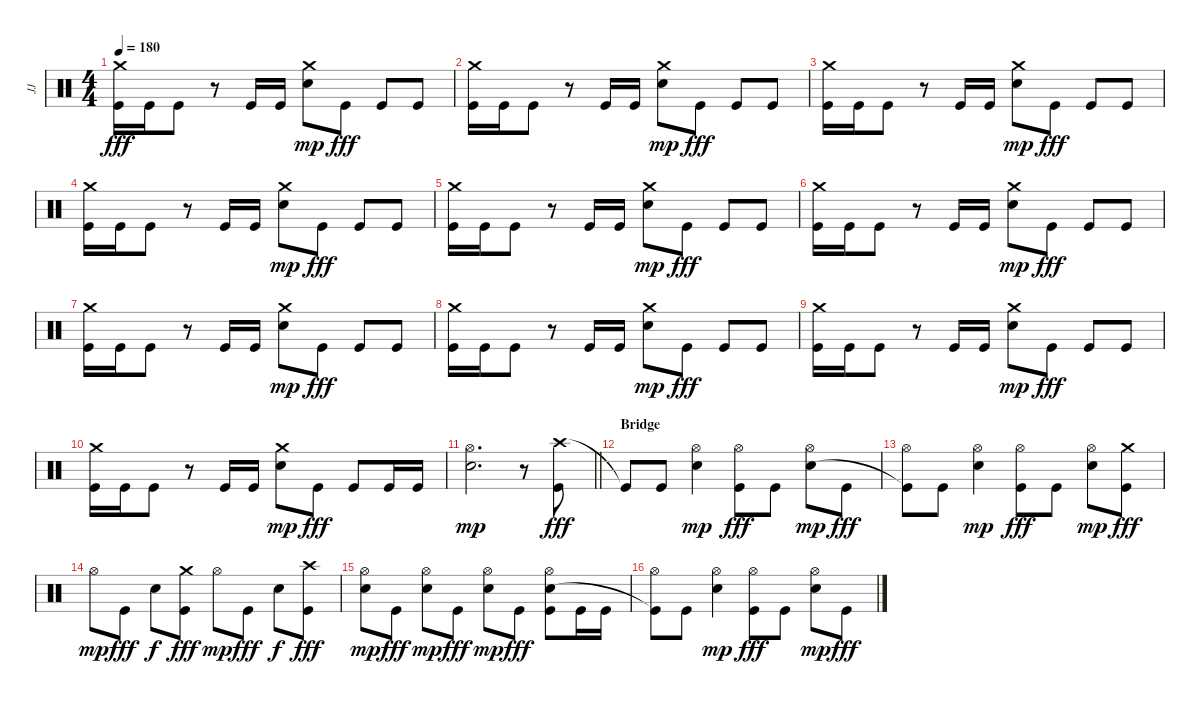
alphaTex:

\track ("JJ" "JJ") {mute instrument percussion}
\staff {score}
\articulation defaults
\ts (4 4)
\tempo 180
\clef neutral
\ks c
("Crash medium (hit)" "Kick (hit)").16{dy fff} "Kick (hit)".16 "Kick (hit)".8 r.8 "Kick (hit)".16 "Kick (hit)".16 ("Crash medium (hit)" "Snare (hit) 2").8{dy mp} "Kick (hit)".8{dy fff} "Kick (hit)".8 "Kick (hit)".8 |
("Crash medium (hit)" "Kick (hit)").16 "Kick (hit)".16 "Kick (hit)".8 r.8 "Kick (hit)".16 "Kick (hit)".16 ("Crash medium (hit)" "Snare (hit) 2").8{dy mp} "Kick (hit)".8{dy fff} "Kick (hit)".8 "Kick (hit)".8 |
("Crash medium (hit)" "Kick (hit)").16 "Kick (hit)".16 "Kick (hit)".8 r.8 "Kick (hit)".16 "Kick (hit)".16 ("Crash medium (hit)" "Snare (hit) 2").8{dy mp} "Kick (hit)".8{dy fff} "Kick (hit)".8 "Kick (hit)".8 |
("Crash medium (hit)" "Kick (hit)").16 "Kick (hit)".16 "Kick (hit)".8 r.8 "Kick (hit)".16 "Kick (hit)".16 ("Crash medium (hit)" "Snare (hit) 2").8{dy mp} "Kick (hit)".8{dy fff} "Kick (hit)".8 "Kick (hit)".8 |
("Crash medium (hit)" "Kick (hit)").16 "Kick (hit)".16 "Kick (hit)".8 r.8 "Kick (hit)".16 "Kick (hit)".16 ("Crash medium (hit)" "Snare (hit) 2").8{dy mp} "Kick (hit)".8{dy fff} "Kick (hit)".8 "Kick (hit)".8 |
("Crash medium (hit)" "Kick (hit)").16 "Kick (hit)".16 "Kick (hit)".8 r.8 "Kick (hit)".16 "Kick (hit)".16 ("Crash medium (hit)" "Snare (hit) 2").8{dy mp} "Kick (hit)".8{dy fff} "Kick (hit)".8 "Kick (hit)".8 |
("Crash medium (hit)" "Kick (hit)").16 "Kick (hit)".16 "Kick (hit)".8 r.8 "Kick (hit)".16 "Kick (hit)".16 ("Crash medium (hit)" "Snare (hit) 2").8{dy mp} "Kick (hit)".8{dy fff} "Kick (hit)".8 "Kick (hit)".8 |
("Crash medium (hit)" "Kick (hit)").16 "Kick (hit)".16 "Kick (hit)".8 r.8 "Kick (hit)".16 "Kick (hit)".16 ("Crash medium (hit)" "Snare (hit) 2").8{dy mp} "Kick (hit)".8{dy fff} "Kick (hit)".8 "Kick (hit)".8 |
("Crash medium (hit)" "Kick (hit)").16 "Kick (hit)".16 "Kick (hit)".8 r.8 "Kick (hit)".16 "Kick (hit)".16 ("Crash medium (hit)" "Snare (hit) 2").8{dy mp} "Kick (hit)".8{dy fff} "Kick (hit)".8 "Kick (hit)".8 |
("Crash medium (hit)" "Kick (hit)").16 "Kick (hit)".16 "Kick (hit)".8 r.8 "Kick (hit)".16 "Kick (hit)".16 ("Crash medium (hit)" "Snare (hit) 2").8{dy mp} "Kick (hit)".8{dy fff} "Kick (hit)".8 "Kick (hit)".16 "Kick (hit)".16 |
\barLineRight lightlight
("Hi-Hat (open)" "Snare (hit) 2").2{d dy mp} r.8 ("Crash high (hit)" "Kick (hit)").8{dy fff} |
\section ("" "Bridge")
"Kick (hit)"{t}.8 "Kick (hit)".8 ("Hi-Hat (open)" "Snare (hit) 2").4{dy mp} ("Hi-Hat (open)" "Kick (hit)").8{dy fff} "Kick (hit)".8 ("Hi-Hat (open)" "Snare (hit) 2").8{dy mp} "Kick (hit)".8{dy fff} |
("Hi-Hat (open)" "Kick (hit)"{t}).8 "Kick (hit)".8 ("Hi-Hat (open)" "Snare (hit) 2").4{dy mp} ("Hi-Hat (open)" "Kick (hit)").8{dy fff} "Kick (hit)".8 ("Hi-Hat (open)" "Snare (hit) 2").8{dy mp} ("Crash medium (hit)" "Kick (hit)").8{dy fff} |
"Hi-Hat (open)".8{dy mp} "Kick (hit)".8{dy fff} "Snare (hit) 2".8{dy f} ("Crash medium (hit)" "Kick (hit)").8{dy fff} "Hi-Hat (open)".8{dy mp} "Kick (hit)".8{dy fff} "Snare (hit) 2".8{dy f} ("Crash high (hit)" "Kick (hit)").8{dy fff} |
("Hi-Hat (open)" "Snare (hit) 2").8{dy mp} "Kick (hit)".8{dy fff} ("Hi-Hat (open)" "Snare (hit) 2").8{dy mp} "Kick (hit)".8{dy fff} ("Hi-Hat (open)" "Snare (hit) 2").8{dy mp} "Kick (hit)".8{dy fff} ("Hi-Hat (open)" "Snare (hit) 2" "Kick (hit)").8 "Kick (hit)".16 "Kick (hit)".16 |
("Hi-Hat (open)" "Kick (hit)"{t}).8 "Kick (hit)".8 ("Hi-Hat (open)" "Snare (hit) 2").4{dy mp} ("Hi-Hat (open)" "Kick (hit)").8{dy fff} "Kick (hit)".8 ("Hi-Hat (open)" "Snare (hit) 2").8{dy mp} "Kick (hit)".8{dy fff}
